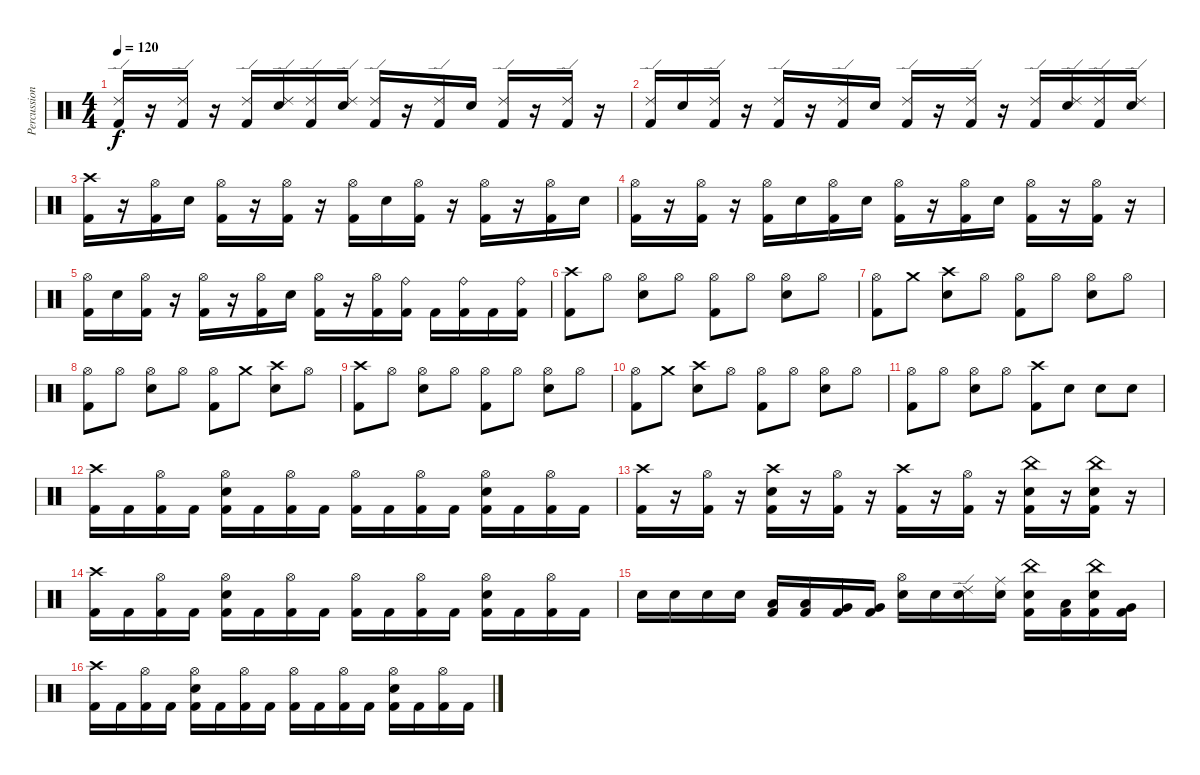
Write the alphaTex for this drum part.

\track ("Percussion" "Percussion") {instrument percussion}
\staff {score}
\articulation defaults
\ts (4 4)
\tempo 120
\clef neutral
\ks c
("Ride (edge) 2" "Kick (hit) 2").16{dy f} r.16 ("Ride (edge) 2" "Kick (hit) 2").16 r.16 ("Ride (edge) 2" "Kick (hit) 2").16 ("Ride (edge) 2" "Snare (hit) 2").16 ("Ride (edge) 2" "Kick (hit) 2").16 ("Ride (edge) 2" "Snare (hit) 2").16 ("Ride (edge) 2" "Kick (hit) 2").16 r.16 ("Ride (edge) 2" "Kick (hit) 2").16 "Snare (hit) 2".16 ("Ride (edge) 2" "Kick (hit) 2").16 r.16 ("Ride (edge) 2" "Kick (hit) 2").16 r.16 |
("Ride (edge) 2" "Kick (hit) 2").16 "Snare (hit) 2".16 ("Ride (edge) 2" "Kick (hit) 2").16 r.16 ("Ride (edge) 2" "Kick (hit) 2").16 r.16 ("Ride (edge) 2" "Kick (hit) 2").16 "Snare (hit) 2".16 ("Ride (edge) 2" "Kick (hit) 2").16 r.16 ("Ride (edge) 2" "Kick (hit) 2").16 r.16 ("Ride (edge) 2" "Kick (hit) 2").16 ("Ride (edge) 2" "Snare (hit) 2").16 ("Ride (edge) 2" "Kick (hit) 2").16 ("Ride (edge) 2" "Snare (hit) 2").16 |
("Crash high (hit)" "Kick (hit) 2").16 r.16 ("Hi-Hat (open)" "Kick (hit) 2").16 "Snare (hit) 2".16 ("Hi-Hat (open)" "Kick (hit) 2").16 r.16 ("Hi-Hat (open)" "Kick (hit) 2").16 r.16 ("Hi-Hat (open)" "Kick (hit) 2").16 "Snare (hit) 2".16 ("Hi-Hat (open)" "Kick (hit) 2").16 r.16 ("Hi-Hat (open)" "Kick (hit) 2").16 r.16 ("Hi-Hat (open)" "Kick (hit) 2").16 "Snare (hit) 2".16 |
("Hi-Hat (open)" "Kick (hit) 2").16 r.16 ("Hi-Hat (open)" "Kick (hit) 2").16 r.16 ("Hi-Hat (open)" "Kick (hit) 2").16 "Snare (hit) 2".16 ("Hi-Hat (open)" "Kick (hit) 2").16 "Snare (hit) 2".16 ("Hi-Hat (open)" "Kick (hit) 2").16 r.16 ("Hi-Hat (open)" "Kick (hit) 2").16 "Snare (hit) 2".16 ("Hi-Hat (open)" "Kick (hit) 2").16 r.16 ("Hi-Hat (open)" "Kick (hit) 2").16 r.16 |
("Hi-Hat (open)" "Kick (hit) 2").16 "Snare (hit) 2".16 ("Hi-Hat (open)" "Kick (hit) 2").16 r.16 ("Hi-Hat (open)" "Kick (hit) 2").16 r.16 ("Hi-Hat (open)" "Kick (hit) 2").16 "Snare (hit) 2".16 ("Hi-Hat (open)" "Kick (hit) 2").16 r.16 ("Hi-Hat (open)" "Kick (hit) 2").16 ("Ride (bell)" "Kick (hit) 2").16 "Kick (hit) 2".16 ("Ride (bell)" "Kick (hit) 2").16 "Kick (hit) 2".16 ("Ride (bell)" "Kick (hit) 2").16 |
("Crash high (hit)" "Kick (hit) 2").8 "Hi-Hat (open)".8 ("Hi-Hat (open)" "Snare (hit) 2").8 "Hi-Hat (open)".8 ("Hi-Hat (open)" "Kick (hit) 2").8 "Hi-Hat (open)".8 ("Hi-Hat (open)" "Snare (hit) 2").8 "Hi-Hat (open)".8 |
("Hi-Hat (open)" "Kick (hit) 2").8 "Crash medium (hit)".8 ("Crash high (hit)" "Snare (hit) 2").8 "Hi-Hat (open)".8 ("Hi-Hat (open)" "Kick (hit) 2").8 "Hi-Hat (open)".8 ("Hi-Hat (open)" "Snare (hit) 2").8 "Hi-Hat (open)".8 |
("Hi-Hat (open)" "Kick (hit) 2").8 "Hi-Hat (open)".8 ("Hi-Hat (open)" "Snare (hit) 2").8 "Hi-Hat (open)".8 ("Hi-Hat (open)" "Kick (hit) 2").8 "Crash medium (hit)".8 ("Crash high (hit)" "Snare (hit) 2").8 "Hi-Hat (open)".8 |
("Crash high (hit)" "Kick (hit) 2").8 "Hi-Hat (open)".8 ("Hi-Hat (open)" "Snare (hit) 2").8 "Hi-Hat (open)".8 ("Hi-Hat (open)" "Kick (hit) 2").8 "Hi-Hat (open)".8 ("Hi-Hat (open)" "Snare (hit) 2").8 "Hi-Hat (open)".8 |
("Hi-Hat (open)" "Kick (hit) 2").8 "Crash medium (hit)".8 ("Crash high (hit)" "Snare (hit) 2").8 "Hi-Hat (open)".8 ("Hi-Hat (open)" "Kick (hit) 2").8 "Hi-Hat (open)".8 ("Hi-Hat (open)" "Snare (hit) 2").8 "Hi-Hat (open)".8 |
("Hi-Hat (open)" "Kick (hit) 2").8 "Hi-Hat (open)".8 ("Hi-Hat (open)" "Snare (hit) 2").8 "Hi-Hat (open)".8 ("Crash high (hit)" "Kick (hit) 2").8 "Snare (hit) 2".8 "Snare (hit) 2".8 "Snare (hit) 2".8 |
("Crash high (hit)" "Kick (hit) 2").16 "Kick (hit) 2".16 ("Hi-Hat (open)" "Kick (hit) 2").16 "Kick (hit) 2".16 ("Hi-Hat (open)" "Snare (hit) 2" "Kick (hit) 2").16 "Kick (hit) 2".16 ("Hi-Hat (open)" "Kick (hit) 2").16 "Kick (hit) 2".16 ("Hi-Hat (open)" "Kick (hit) 2").16 "Kick (hit) 2".16 ("Hi-Hat (open)" "Kick (hit) 2").16 "Kick (hit) 2".16 ("Hi-Hat (open)" "Snare (hit) 2" "Kick (hit) 2").16 "Kick (hit) 2".16 ("Hi-Hat (open)" "Kick (hit) 2").16 "Kick (hit) 2".16 |
("Crash high (hit)" "Kick (hit) 2").16 r.16 ("Hi-Hat (open)" "Kick (hit) 2").16 r.16 ("Crash high (hit)" "Snare (hit) 2" "Kick (hit) 2").16 r.16 ("Hi-Hat (open)" "Kick (hit) 2").16 r.16 ("Crash high (hit)" "Kick (hit) 2").16 r.16 ("Hi-Hat (open)" "Kick (hit) 2").16 r.16 ("China (hit)" "Snare (hit) 2" "Kick (hit) 2").16 r.16 ("China (hit)" "Snare (hit) 2" "Kick (hit) 2").16 r.16 |
("Crash high (hit)" "Kick (hit) 2").16 "Kick (hit) 2".16 ("Hi-Hat (open)" "Kick (hit) 2").16 "Kick (hit) 2".16 ("Hi-Hat (open)" "Snare (hit) 2" "Kick (hit) 2").16 "Kick (hit) 2".16 ("Hi-Hat (open)" "Kick (hit) 2").16 "Kick (hit) 2".16 ("Hi-Hat (open)" "Kick (hit) 2").16 "Kick (hit) 2".16 ("Hi-Hat (open)" "Kick (hit) 2").16 "Kick (hit) 2".16 ("Hi-Hat (open)" "Snare (hit) 2" "Kick (hit) 2").16 "Kick (hit) 2".16 ("Hi-Hat (open)" "Kick (hit) 2").16 "Kick (hit) 2".16 |
"Snare (hit) 2".16 "Snare (hit) 2".16 "Snare (hit) 2".16 "Snare (hit) 2".16 ("Low Tom (hit)" "Kick (hit) 2").16 ("Low Tom (hit)" "Kick (hit) 2").16 ("Very Low Tom (hit)" "Kick (hit) 2").16 ("Very Low Tom (hit)" "Kick (hit) 2").16 ("Hi-Hat (open)" "Snare (hit) 2").16 "Snare (hit) 2".16 ("Ride (edge) 2" "Snare (hit) 2").16 ("Ride (middle)" "Snare (hit) 2").16 ("China (hit)" "Snare (hit) 2" "Kick (hit) 2").16 ("Low Tom (hit)" "Kick (hit) 2").16 ("China (hit)" "Snare (hit) 2" "Kick (hit) 2").16 ("Very Low Tom (hit)" "Kick (hit) 2").16 |
("Crash high (hit)" "Kick (hit) 2").16 "Kick (hit) 2".16 ("Hi-Hat (open)" "Kick (hit) 2").16 "Kick (hit) 2".16 ("Hi-Hat (open)" "Snare (hit) 2" "Kick (hit) 2").16 "Kick (hit) 2".16 ("Hi-Hat (open)" "Kick (hit) 2").16 "Kick (hit) 2".16 ("Hi-Hat (open)" "Kick (hit) 2").16 "Kick (hit) 2".16 ("Hi-Hat (open)" "Kick (hit) 2").16 "Kick (hit) 2".16 ("Hi-Hat (open)" "Snare (hit) 2" "Kick (hit) 2").16 "Kick (hit) 2".16 ("Hi-Hat (open)" "Kick (hit) 2").16 "Kick (hit) 2".16
